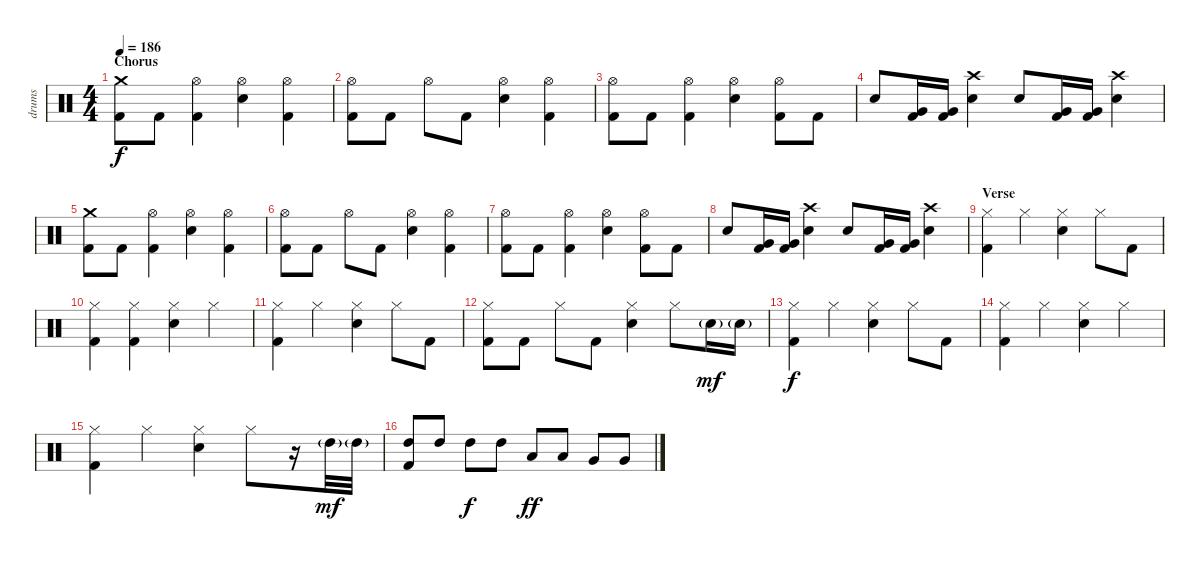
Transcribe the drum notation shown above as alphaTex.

\track ("drums" "drums") {instrument percussion}
\staff {score}
\articulation defaults
\ts (4 4)
\section ("" "Chorus")
\tempo 186
\clef neutral
\ks c
("Crash medium (hit)" "Kick (hit) 2").8{dy f} "Kick (hit) 2".8 ("Hi-Hat (open)" "Kick (hit) 2").4 ("Hi-Hat (open)" "Electric Snare (hit)").4 ("Hi-Hat (open)" "Kick (hit) 2").4 |
("Hi-Hat (open)" "Kick (hit) 2").8 "Kick (hit) 2".8 "Hi-Hat (open)".8 "Kick (hit) 2".8 ("Hi-Hat (open)" "Electric Snare (hit)").4 ("Hi-Hat (open)" "Kick (hit) 2").4 |
("Hi-Hat (open)" "Kick (hit) 2").8 "Kick (hit) 2".8 ("Hi-Hat (open)" "Kick (hit) 2").4 ("Hi-Hat (open)" "Electric Snare (hit)").4 ("Hi-Hat (open)" "Kick (hit) 2").8 "Kick (hit) 2".8 |
"Electric Snare (hit)".8 ("Very Low Tom (hit)" "Kick (hit) 2").16 ("Very Low Tom (hit)" "Kick (hit) 2").16 ("Crash high (hit)" "Electric Snare (hit)").4 "Electric Snare (hit)".8 ("Very Low Tom (hit)" "Kick (hit) 2").16 ("Very Low Tom (hit)" "Kick (hit) 2").16 ("Crash high (hit)" "Electric Snare (hit)").4 |
("Crash medium (hit)" "Kick (hit) 2").8 "Kick (hit) 2".8 ("Hi-Hat (open)" "Kick (hit) 2").4 ("Hi-Hat (open)" "Electric Snare (hit)").4 ("Hi-Hat (open)" "Kick (hit) 2").4 |
("Hi-Hat (open)" "Kick (hit) 2").8 "Kick (hit) 2".8 "Hi-Hat (open)".8 "Kick (hit) 2".8 ("Hi-Hat (open)" "Electric Snare (hit)").4 ("Hi-Hat (open)" "Kick (hit) 2").4 |
("Hi-Hat (open)" "Kick (hit) 2").8 "Kick (hit) 2".8 ("Hi-Hat (open)" "Kick (hit) 2").4 ("Hi-Hat (open)" "Electric Snare (hit)").4 ("Hi-Hat (open)" "Kick (hit) 2").8 "Kick (hit) 2".8 |
"Electric Snare (hit)".8 ("Very Low Tom (hit)" "Kick (hit) 2").16 ("Very Low Tom (hit)" "Kick (hit) 2").16 ("Crash high (hit)" "Electric Snare (hit)").4 "Electric Snare (hit)".8 ("Very Low Tom (hit)" "Kick (hit) 2").16 ("Very Low Tom (hit)" "Kick (hit) 2").16 ("Crash high (hit)" "Electric Snare (hit)").4 |
\section ("" "Verse")
("Hi-Hat (closed)" "Kick (hit) 2").4 "Hi-Hat (closed)".4 ("Hi-Hat (closed)" "Electric Snare (hit)").4 "Hi-Hat (closed)".8 "Kick (hit) 2".8 |
("Hi-Hat (closed)" "Kick (hit) 2").4 ("Hi-Hat (closed)" "Kick (hit) 2").4 ("Hi-Hat (closed)" "Electric Snare (hit)").4 "Hi-Hat (closed)".4 |
("Hi-Hat (closed)" "Kick (hit) 2").4 "Hi-Hat (closed)".4 ("Hi-Hat (closed)" "Electric Snare (hit)").4 "Hi-Hat (closed)".8 "Kick (hit) 2".8 |
("Hi-Hat (closed)" "Kick (hit) 2").8 "Kick (hit) 2".8 "Hi-Hat (closed)".8 "Kick (hit) 2".8 ("Hi-Hat (closed)" "Electric Snare (hit)").4 "Hi-Hat (closed)".8 "Electric Snare (hit)"{g}.16{dy mf} "Electric Snare (hit)"{g}.16 |
("Hi-Hat (closed)" "Kick (hit) 2").4{dy f} "Hi-Hat (closed)".4 ("Hi-Hat (closed)" "Electric Snare (hit)").4 "Hi-Hat (closed)".8 "Kick (hit) 2".8 |
("Hi-Hat (closed)" "Kick (hit) 2").4 "Hi-Hat (closed)".4 ("Hi-Hat (closed)" "Electric Snare (hit)").4 "Hi-Hat (closed)".4 |
("Hi-Hat (closed)" "Kick (hit) 2").4 "Hi-Hat (closed)".4 ("Hi-Hat (closed)" "Electric Snare (hit)").4 "Hi-Hat (closed)".8 r.16 "High Tom (hit)"{g}.32{dy mf} "High Tom (hit)"{g}.32 |
("High Tom (hit)" "Kick (hit) 2").8 "High Tom (hit)".8 "High Tom (hit)".8{dy f} "High Tom (hit)".8 "Low Tom (hit)".8{dy ff} "Low Tom (hit)".8 "Very Low Tom (hit)".8 "Very Low Tom (hit)".8
